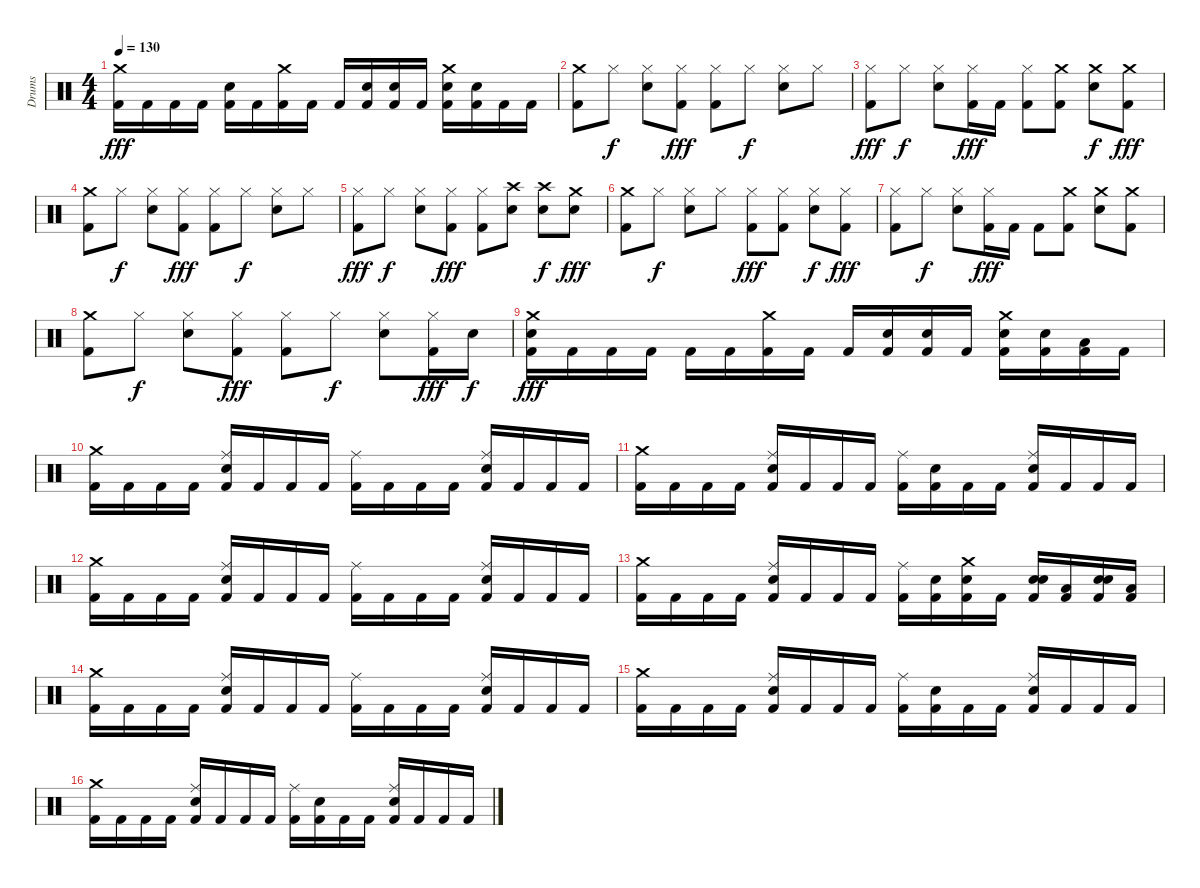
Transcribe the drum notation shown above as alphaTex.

\track ("Drums" "Drums") {instrument percussion}
\staff {score}
\articulation defaults
\ts (4 4)
\tempo 130
\clef neutral
\ks c
("Crash medium (hit)" "Kick (hit) 2").16{dy fff} "Kick (hit) 2".16 "Kick (hit) 2".16 "Kick (hit) 2".16 ("Electric Snare (hit)" "Kick (hit) 2").16 "Kick (hit) 2".16 ("Crash medium (hit)" "Kick (hit) 2").16 "Kick (hit) 2".16 "Kick (hit) 2".16 ("Electric Snare (hit)" "Kick (hit) 2").16 ("Electric Snare (hit)" "Kick (hit) 2").16 "Kick (hit) 2".16 ("Crash medium (hit)" "Electric Snare (hit)" "Kick (hit) 2").16 ("Electric Snare (hit)" "Kick (hit) 2").16 "Kick (hit) 2".16 "Kick (hit) 2".16 |
("Crash medium (hit)" "Kick (hit) 2").8 "Hi-Hat (closed)".8{dy f} ("Hi-Hat (closed)" "Electric Snare (hit)").8 ("Hi-Hat (closed)" "Kick (hit) 2").8{dy fff} ("Hi-Hat (closed)" "Kick (hit) 2").8 "Hi-Hat (closed)".8{dy f} ("Hi-Hat (closed)" "Electric Snare (hit)").8 "Hi-Hat (closed)".8 |
("Hi-Hat (closed)" "Kick (hit) 2").8{dy fff} "Hi-Hat (closed)".8{dy f} ("Hi-Hat (closed)" "Electric Snare (hit)").8 ("Hi-Hat (closed)" "Kick (hit) 2").16{dy fff} "Kick (hit) 2".16 ("Hi-Hat (closed)" "Kick (hit) 2").8 ("Crash medium (hit)" "Kick (hit) 2").8 ("Crash medium (hit)" "Electric Snare (hit)").8{dy f} ("Crash medium (hit)" "Kick (hit) 2").8{dy fff} |
("Crash medium (hit)" "Kick (hit) 2").8 "Hi-Hat (closed)".8{dy f} ("Hi-Hat (closed)" "Electric Snare (hit)").8 ("Hi-Hat (closed)" "Kick (hit) 2").8{dy fff} ("Hi-Hat (closed)" "Kick (hit) 2").8 "Hi-Hat (closed)".8{dy f} ("Hi-Hat (closed)" "Electric Snare (hit)").8 "Hi-Hat (closed)".8 |
("Hi-Hat (closed)" "Kick (hit) 2").8{dy fff} "Hi-Hat (closed)".8{dy f} ("Hi-Hat (closed)" "Electric Snare (hit)").8 ("Hi-Hat (closed)" "Kick (hit) 2").8{dy fff} ("Hi-Hat (closed)" "Kick (hit) 2").8 ("Crash high (hit)" "Electric Snare (hit)").8 ("Crash high (hit)" "Electric Snare (hit)").8{dy f} ("Crash medium (hit)" "Electric Snare (hit)").8{dy fff} |
("Crash medium (hit)" "Kick (hit) 2").8 "Hi-Hat (closed)".8{dy f} ("Hi-Hat (closed)" "Electric Snare (hit)").8 "Hi-Hat (closed)".8 ("Hi-Hat (closed)" "Kick (hit) 2").8{dy fff} ("Hi-Hat (closed)" "Kick (hit) 2").8 ("Hi-Hat (closed)" "Electric Snare (hit)").8{dy f} ("Hi-Hat (closed)" "Kick (hit) 2").8{dy fff} |
("Hi-Hat (closed)" "Kick (hit) 2").8 "Hi-Hat (closed)".8{dy f} ("Hi-Hat (closed)" "Electric Snare (hit)").8 ("Hi-Hat (closed)" "Kick (hit) 2").16{dy fff} "Kick (hit) 2".16 "Kick (hit) 2".8 ("Crash medium (hit)" "Kick (hit) 2").8 ("Crash medium (hit)" "Electric Snare (hit)").8 ("Crash medium (hit)" "Kick (hit) 2").8 |
("Crash medium (hit)" "Kick (hit) 2").8 "Hi-Hat (closed)".8{dy f} ("Hi-Hat (closed)" "Electric Snare (hit)").8 ("Hi-Hat (closed)" "Kick (hit) 2").8{dy fff} ("Hi-Hat (closed)" "Kick (hit) 2").8 "Hi-Hat (closed)".8{dy f} ("Hi-Hat (closed)" "Electric Snare (hit)").8 ("Hi-Hat (closed)" "Kick (hit) 2").16{dy fff} "Electric Snare (hit)".16{dy f} |
("Crash medium (hit)" "Electric Snare (hit)" "Kick (hit) 2").16{dy fff} "Kick (hit) 2".16 "Kick (hit) 2".16 "Kick (hit) 2".16 "Kick (hit) 2".16 "Kick (hit) 2".16 ("Crash medium (hit)" "Kick (hit) 2").16 "Kick (hit) 2".16 "Kick (hit) 2".16 ("Electric Snare (hit)" "Kick (hit) 2").16 ("Electric Snare (hit)" "Kick (hit) 2").16 "Kick (hit) 2".16 ("Crash medium (hit)" "Electric Snare (hit)" "Kick (hit) 2").16 ("Electric Snare (hit)" "Kick (hit) 2").16 ("Low Tom (hit)" "Kick (hit) 2").16 "Kick (hit) 2".16 |
("Crash medium (hit)" "Kick (hit) 2").16 "Kick (hit) 2".16 "Kick (hit) 2".16 "Kick (hit) 2".16 ("Ride (middle)" "Snare (hit) 2" "Kick (hit) 2").16 "Kick (hit) 2".16 "Kick (hit) 2".16 "Kick (hit) 2".16 ("Ride (middle)" "Kick (hit) 2").16 "Kick (hit) 2".16 "Kick (hit) 2".16 "Kick (hit) 2".16 ("Ride (middle)" "Snare (hit) 2" "Kick (hit) 2").16 "Kick (hit) 2".16 "Kick (hit) 2".16 "Kick (hit) 2".16 |
("Crash medium (hit)" "Kick (hit) 2").16 "Kick (hit) 2".16 "Kick (hit) 2".16 "Kick (hit) 2".16 ("Ride (middle)" "Snare (hit) 2" "Kick (hit) 2").16 "Kick (hit) 2".16 "Kick (hit) 2".16 "Kick (hit) 2".16 ("Ride (middle)" "Kick (hit) 2").16 ("Snare (hit) 2" "Kick (hit) 2").16 "Kick (hit) 2".16 "Kick (hit) 2".16 ("Ride (middle)" "Snare (hit) 2" "Kick (hit) 2").16 "Kick (hit) 2".16 "Kick (hit) 2".16 "Kick (hit) 2".16 |
("Crash medium (hit)" "Kick (hit) 2").16 "Kick (hit) 2".16 "Kick (hit) 2".16 "Kick (hit) 2".16 ("Ride (middle)" "Snare (hit) 2" "Kick (hit) 2").16 "Kick (hit) 2".16 "Kick (hit) 2".16 "Kick (hit) 2".16 ("Ride (middle)" "Kick (hit) 2").16 "Kick (hit) 2".16 "Kick (hit) 2".16 "Kick (hit) 2".16 ("Ride (middle)" "Snare (hit) 2" "Kick (hit) 2").16 "Kick (hit) 2".16 "Kick (hit) 2".16 "Kick (hit) 2".16 |
("Crash medium (hit)" "Kick (hit) 2").16 "Kick (hit) 2".16 "Kick (hit) 2".16 "Kick (hit) 2".16 ("Ride (middle)" "Snare (hit) 2" "Kick (hit) 2").16 "Kick (hit) 2".16 "Kick (hit) 2".16 "Kick (hit) 2".16 ("Ride (middle)" "Kick (hit) 2").16 ("Snare (hit) 2" "Kick (hit) 2").16 ("Crash medium (hit)" "Snare (hit) 2" "Kick (hit) 2").16 "Kick (hit) 2".16 ("Electric Snare (hit)" "Snare (hit) 2" "Kick (hit) 2").16 ("Low Tom (hit)" "Kick (hit) 2").16 ("Electric Snare (hit)" "Snare (hit) 2" "Kick (hit) 2").16 ("Low Tom (hit)" "Kick (hit) 2").16 |
("Crash medium (hit)" "Kick (hit) 2").16 "Kick (hit) 2".16 "Kick (hit) 2".16 "Kick (hit) 2".16 ("Ride (middle)" "Snare (hit) 2" "Kick (hit) 2").16 "Kick (hit) 2".16 "Kick (hit) 2".16 "Kick (hit) 2".16 ("Ride (middle)" "Kick (hit) 2").16 "Kick (hit) 2".16 "Kick (hit) 2".16 "Kick (hit) 2".16 ("Ride (middle)" "Snare (hit) 2" "Kick (hit) 2").16 "Kick (hit) 2".16 "Kick (hit) 2".16 "Kick (hit) 2".16 |
("Crash medium (hit)" "Kick (hit) 2").16 "Kick (hit) 2".16 "Kick (hit) 2".16 "Kick (hit) 2".16 ("Ride (middle)" "Snare (hit) 2" "Kick (hit) 2").16 "Kick (hit) 2".16 "Kick (hit) 2".16 "Kick (hit) 2".16 ("Ride (middle)" "Kick (hit) 2").16 ("Snare (hit) 2" "Kick (hit) 2").16 "Kick (hit) 2".16 "Kick (hit) 2".16 ("Ride (middle)" "Snare (hit) 2" "Kick (hit) 2").16 "Kick (hit) 2".16 "Kick (hit) 2".16 "Kick (hit) 2".16 |
("Crash medium (hit)" "Kick (hit) 2").16 "Kick (hit) 2".16 "Kick (hit) 2".16 "Kick (hit) 2".16 ("Ride (middle)" "Snare (hit) 2" "Kick (hit) 2").16 "Kick (hit) 2".16 "Kick (hit) 2".16 "Kick (hit) 2".16 ("Ride (middle)" "Kick (hit) 2").16 ("Snare (hit) 2" "Kick (hit) 2").16 "Kick (hit) 2".16 "Kick (hit) 2".16 ("Ride (middle)" "Snare (hit) 2" "Kick (hit) 2").16 "Kick (hit) 2".16 "Kick (hit) 2".16 "Kick (hit) 2".16
